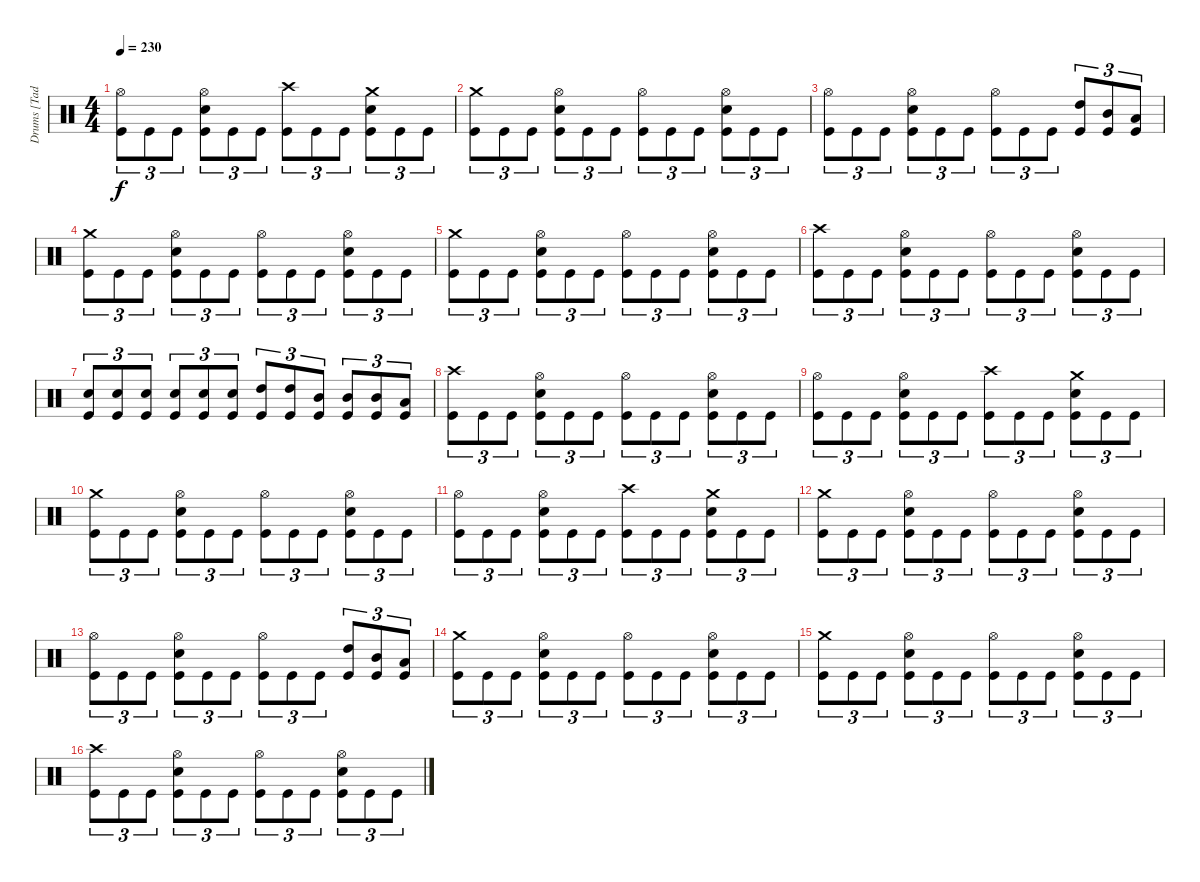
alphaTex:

\track ("Drums [Tad Leger]" "Drums [Tad") {instrument percussion}
\staff {score}
\articulation defaults
\ts (4 4)
\tempo 230
\clef neutral
\ks c
("Hi-Hat (open)" "Kick (hit)").8{tu (3 2) dy f} "Kick (hit)".8{tu (3 2)} "Kick (hit)".8{tu (3 2)} ("Hi-Hat (open)" "Electric Snare (hit)" "Kick (hit)").8{tu (3 2)} "Kick (hit)".8{tu (3 2)} "Kick (hit)".8{tu (3 2)} ("Crash high (hit)" "Kick (hit)").8{tu (3 2)} "Kick (hit)".8{tu (3 2)} "Kick (hit)".8{tu (3 2)} ("Crash medium (hit)" "Electric Snare (hit)" "Kick (hit)").8{tu (3 2)} "Kick (hit)".8{tu (3 2)} "Kick (hit)".8{tu (3 2)} |
("Crash medium (hit)" "Kick (hit)").8{tu (3 2)} "Kick (hit)".8{tu (3 2)} "Kick (hit)".8{tu (3 2)} ("Hi-Hat (open)" "Electric Snare (hit)" "Kick (hit)").8{tu (3 2)} "Kick (hit)".8{tu (3 2)} "Kick (hit)".8{tu (3 2)} ("Hi-Hat (open)" "Kick (hit)").8{tu (3 2)} "Kick (hit)".8{tu (3 2)} "Kick (hit)".8{tu (3 2)} ("Hi-Hat (open)" "Electric Snare (hit)" "Kick (hit)").8{tu (3 2)} "Kick (hit)".8{tu (3 2)} "Kick (hit)".8{tu (3 2)} |
("Hi-Hat (open)" "Kick (hit)").8{tu (3 2)} "Kick (hit)".8{tu (3 2)} "Kick (hit)".8{tu (3 2)} ("Hi-Hat (open)" "Electric Snare (hit)" "Kick (hit)").8{tu (3 2)} "Kick (hit)".8{tu (3 2)} "Kick (hit)".8{tu (3 2)} ("Hi-Hat (open)" "Kick (hit)").8{tu (3 2)} "Kick (hit)".8{tu (3 2)} "Kick (hit)".8{tu (3 2)} ("High Tom (hit)" "Kick (hit)").8{tu (3 2)} ("Mid Tom (hit)" "Kick (hit)").8{tu (3 2)} ("Low Tom (hit)" "Kick (hit)").8{tu (3 2)} |
("Crash medium (hit)" "Kick (hit)").8{tu (3 2)} "Kick (hit)".8{tu (3 2)} "Kick (hit)".8{tu (3 2)} ("Hi-Hat (open)" "Electric Snare (hit)" "Kick (hit)").8{tu (3 2)} "Kick (hit)".8{tu (3 2)} "Kick (hit)".8{tu (3 2)} ("Hi-Hat (open)" "Kick (hit)").8{tu (3 2)} "Kick (hit)".8{tu (3 2)} "Kick (hit)".8{tu (3 2)} ("Hi-Hat (open)" "Electric Snare (hit)" "Kick (hit)").8{tu (3 2)} "Kick (hit)".8{tu (3 2)} "Kick (hit)".8{tu (3 2)} |
("Crash medium (hit)" "Kick (hit)").8{tu (3 2)} "Kick (hit)".8{tu (3 2)} "Kick (hit)".8{tu (3 2)} ("Hi-Hat (open)" "Electric Snare (hit)" "Kick (hit)").8{tu (3 2)} "Kick (hit)".8{tu (3 2)} "Kick (hit)".8{tu (3 2)} ("Hi-Hat (open)" "Kick (hit)").8{tu (3 2)} "Kick (hit)".8{tu (3 2)} "Kick (hit)".8{tu (3 2)} ("Hi-Hat (open)" "Electric Snare (hit)" "Kick (hit)").8{tu (3 2)} "Kick (hit)".8{tu (3 2)} "Kick (hit)".8{tu (3 2)} |
("Crash high (hit)" "Kick (hit)").8{tu (3 2)} "Kick (hit)".8{tu (3 2)} "Kick (hit)".8{tu (3 2)} ("Hi-Hat (open)" "Electric Snare (hit)" "Kick (hit)").8{tu (3 2)} "Kick (hit)".8{tu (3 2)} "Kick (hit)".8{tu (3 2)} ("Hi-Hat (open)" "Kick (hit)").8{tu (3 2)} "Kick (hit)".8{tu (3 2)} "Kick (hit)".8{tu (3 2)} ("Hi-Hat (open)" "Electric Snare (hit)" "Kick (hit)").8{tu (3 2)} "Kick (hit)".8{tu (3 2)} "Kick (hit)".8{tu (3 2)} |
("Electric Snare (hit)" "Kick (hit)").8{tu (3 2)} ("Electric Snare (hit)" "Kick (hit)").8{tu (3 2)} ("Electric Snare (hit)" "Kick (hit)").8{tu (3 2)} ("Electric Snare (hit)" "Kick (hit)").8{tu (3 2)} ("Electric Snare (hit)" "Kick (hit)").8{tu (3 2)} ("Electric Snare (hit)" "Kick (hit)").8{tu (3 2)} ("High Tom (hit)" "Kick (hit)").8{tu (3 2)} ("High Tom (hit)" "Kick (hit)").8{tu (3 2)} ("Mid Tom (hit)" "Kick (hit)").8{tu (3 2)} ("Mid Tom (hit)" "Kick (hit)").8{tu (3 2)} ("Mid Tom (hit)" "Kick (hit)").8{tu (3 2)} ("Low Tom (hit)" "Kick (hit)").8{tu (3 2)} |
("Crash high (hit)" "Kick (hit)").8{tu (3 2)} "Kick (hit)".8{tu (3 2)} "Kick (hit)".8{tu (3 2)} ("Hi-Hat (open)" "Electric Snare (hit)" "Kick (hit)").8{tu (3 2)} "Kick (hit)".8{tu (3 2)} "Kick (hit)".8{tu (3 2)} ("Hi-Hat (open)" "Kick (hit)").8{tu (3 2)} "Kick (hit)".8{tu (3 2)} "Kick (hit)".8{tu (3 2)} ("Hi-Hat (open)" "Electric Snare (hit)" "Kick (hit)").8{tu (3 2)} "Kick (hit)".8{tu (3 2)} "Kick (hit)".8{tu (3 2)} |
("Hi-Hat (open)" "Kick (hit)").8{tu (3 2)} "Kick (hit)".8{tu (3 2)} "Kick (hit)".8{tu (3 2)} ("Hi-Hat (open)" "Electric Snare (hit)" "Kick (hit)").8{tu (3 2)} "Kick (hit)".8{tu (3 2)} "Kick (hit)".8{tu (3 2)} ("Crash high (hit)" "Kick (hit)").8{tu (3 2)} "Kick (hit)".8{tu (3 2)} "Kick (hit)".8{tu (3 2)} ("Crash medium (hit)" "Electric Snare (hit)" "Kick (hit)").8{tu (3 2)} "Kick (hit)".8{tu (3 2)} "Kick (hit)".8{tu (3 2)} |
("Crash medium (hit)" "Kick (hit)").8{tu (3 2)} "Kick (hit)".8{tu (3 2)} "Kick (hit)".8{tu (3 2)} ("Hi-Hat (open)" "Electric Snare (hit)" "Kick (hit)").8{tu (3 2)} "Kick (hit)".8{tu (3 2)} "Kick (hit)".8{tu (3 2)} ("Hi-Hat (open)" "Kick (hit)").8{tu (3 2)} "Kick (hit)".8{tu (3 2)} "Kick (hit)".8{tu (3 2)} ("Hi-Hat (open)" "Electric Snare (hit)" "Kick (hit)").8{tu (3 2)} "Kick (hit)".8{tu (3 2)} "Kick (hit)".8{tu (3 2)} |
("Hi-Hat (open)" "Kick (hit)").8{tu (3 2)} "Kick (hit)".8{tu (3 2)} "Kick (hit)".8{tu (3 2)} ("Hi-Hat (open)" "Electric Snare (hit)" "Kick (hit)").8{tu (3 2)} "Kick (hit)".8{tu (3 2)} "Kick (hit)".8{tu (3 2)} ("Crash high (hit)" "Kick (hit)").8{tu (3 2)} "Kick (hit)".8{tu (3 2)} "Kick (hit)".8{tu (3 2)} ("Crash medium (hit)" "Electric Snare (hit)" "Kick (hit)").8{tu (3 2)} "Kick (hit)".8{tu (3 2)} "Kick (hit)".8{tu (3 2)} |
("Crash medium (hit)" "Kick (hit)").8{tu (3 2)} "Kick (hit)".8{tu (3 2)} "Kick (hit)".8{tu (3 2)} ("Hi-Hat (open)" "Electric Snare (hit)" "Kick (hit)").8{tu (3 2)} "Kick (hit)".8{tu (3 2)} "Kick (hit)".8{tu (3 2)} ("Hi-Hat (open)" "Kick (hit)").8{tu (3 2)} "Kick (hit)".8{tu (3 2)} "Kick (hit)".8{tu (3 2)} ("Hi-Hat (open)" "Electric Snare (hit)" "Kick (hit)").8{tu (3 2)} "Kick (hit)".8{tu (3 2)} "Kick (hit)".8{tu (3 2)} |
("Hi-Hat (open)" "Kick (hit)").8{tu (3 2)} "Kick (hit)".8{tu (3 2)} "Kick (hit)".8{tu (3 2)} ("Hi-Hat (open)" "Electric Snare (hit)" "Kick (hit)").8{tu (3 2)} "Kick (hit)".8{tu (3 2)} "Kick (hit)".8{tu (3 2)} ("Hi-Hat (open)" "Kick (hit)").8{tu (3 2)} "Kick (hit)".8{tu (3 2)} "Kick (hit)".8{tu (3 2)} ("High Tom (hit)" "Kick (hit)").8{tu (3 2)} ("Mid Tom (hit)" "Kick (hit)").8{tu (3 2)} ("Low Tom (hit)" "Kick (hit)").8{tu (3 2)} |
("Crash medium (hit)" "Kick (hit)").8{tu (3 2)} "Kick (hit)".8{tu (3 2)} "Kick (hit)".8{tu (3 2)} ("Hi-Hat (open)" "Electric Snare (hit)" "Kick (hit)").8{tu (3 2)} "Kick (hit)".8{tu (3 2)} "Kick (hit)".8{tu (3 2)} ("Hi-Hat (open)" "Kick (hit)").8{tu (3 2)} "Kick (hit)".8{tu (3 2)} "Kick (hit)".8{tu (3 2)} ("Hi-Hat (open)" "Electric Snare (hit)" "Kick (hit)").8{tu (3 2)} "Kick (hit)".8{tu (3 2)} "Kick (hit)".8{tu (3 2)} |
("Crash medium (hit)" "Kick (hit)").8{tu (3 2)} "Kick (hit)".8{tu (3 2)} "Kick (hit)".8{tu (3 2)} ("Hi-Hat (open)" "Electric Snare (hit)" "Kick (hit)").8{tu (3 2)} "Kick (hit)".8{tu (3 2)} "Kick (hit)".8{tu (3 2)} ("Hi-Hat (open)" "Kick (hit)").8{tu (3 2)} "Kick (hit)".8{tu (3 2)} "Kick (hit)".8{tu (3 2)} ("Hi-Hat (open)" "Electric Snare (hit)" "Kick (hit)").8{tu (3 2)} "Kick (hit)".8{tu (3 2)} "Kick (hit)".8{tu (3 2)} |
("Crash high (hit)" "Kick (hit)").8{tu (3 2)} "Kick (hit)".8{tu (3 2)} "Kick (hit)".8{tu (3 2)} ("Hi-Hat (open)" "Electric Snare (hit)" "Kick (hit)").8{tu (3 2)} "Kick (hit)".8{tu (3 2)} "Kick (hit)".8{tu (3 2)} ("Hi-Hat (open)" "Kick (hit)").8{tu (3 2)} "Kick (hit)".8{tu (3 2)} "Kick (hit)".8{tu (3 2)} ("Hi-Hat (open)" "Electric Snare (hit)" "Kick (hit)").8{tu (3 2)} "Kick (hit)".8{tu (3 2)} "Kick (hit)".8{tu (3 2)}
